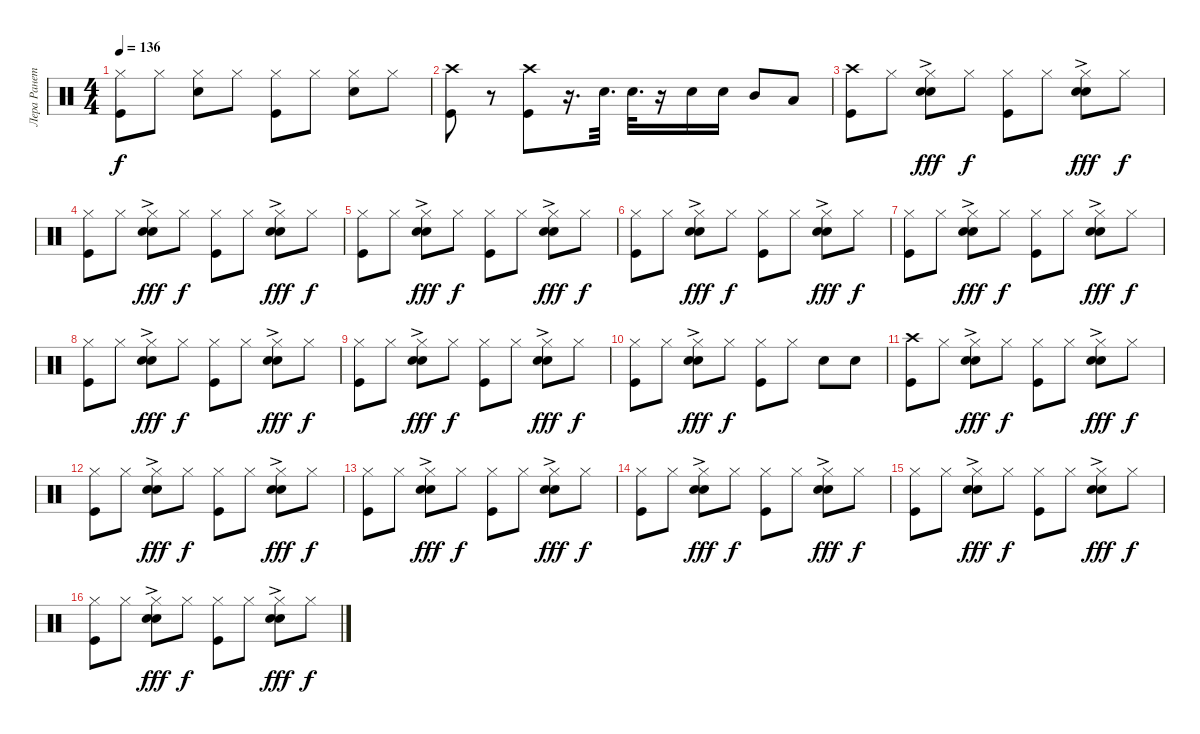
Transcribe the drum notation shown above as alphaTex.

\track ("Лера Ранетка" "Лера Ранет") {instrument percussion}
\staff {score}
\articulation defaults
\ts (4 4)
\tempo 136
\clef neutral
\ks c
("Hi-Hat (closed)" "Kick (hit)").8{dy f} "Hi-Hat (closed)".8 ("Hi-Hat (closed)" "Electric Snare (hit)").8 "Hi-Hat (closed)".8 ("Hi-Hat (closed)" "Kick (hit)").8 "Hi-Hat (closed)".8 ("Hi-Hat (closed)" "Electric Snare (hit)").8 "Hi-Hat (closed)".8 |
("Crash high (hit)" "Kick (hit)").8 r.8 ("Crash high (hit)" "Kick (hit)").8 r.16{d} "Electric Snare (hit)".32{d} "Electric Snare (hit)".32{d} r.16 "Electric Snare (hit)".16 "Electric Snare (hit)".16 "Mid Tom (hit)".8 "Low Tom (hit)".8 |
("Crash high (hit)" "Kick (hit)").8 "Hi-Hat (closed)".8 ("Hi-Hat (closed)" "Electric Snare (hit)" "Hand Clap (hit)"{ac}).8{dy fff} "Hi-Hat (closed)".8{dy f} ("Hi-Hat (closed)" "Kick (hit)").8 "Hi-Hat (closed)".8 ("Hi-Hat (closed)" "Electric Snare (hit)" "Hand Clap (hit)"{ac}).8{dy fff} "Hi-Hat (closed)".8{dy f} |
("Hi-Hat (closed)" "Kick (hit)").8 "Hi-Hat (closed)".8 ("Hi-Hat (closed)" "Electric Snare (hit)" "Hand Clap (hit)"{ac}).8{dy fff} "Hi-Hat (closed)".8{dy f} ("Hi-Hat (closed)" "Kick (hit)").8 "Hi-Hat (closed)".8 ("Hi-Hat (closed)" "Electric Snare (hit)" "Hand Clap (hit)"{ac}).8{dy fff} "Hi-Hat (closed)".8{dy f} |
("Hi-Hat (closed)" "Kick (hit)").8 "Hi-Hat (closed)".8 ("Hi-Hat (closed)" "Electric Snare (hit)" "Hand Clap (hit)"{ac}).8{dy fff} "Hi-Hat (closed)".8{dy f} ("Hi-Hat (closed)" "Kick (hit)").8 "Hi-Hat (closed)".8 ("Hi-Hat (closed)" "Electric Snare (hit)" "Hand Clap (hit)"{ac}).8{dy fff} "Hi-Hat (closed)".8{dy f} |
("Hi-Hat (closed)" "Kick (hit)").8 "Hi-Hat (closed)".8 ("Hi-Hat (closed)" "Electric Snare (hit)" "Hand Clap (hit)"{ac}).8{dy fff} "Hi-Hat (closed)".8{dy f} ("Hi-Hat (closed)" "Kick (hit)").8 "Hi-Hat (closed)".8 ("Hi-Hat (closed)" "Electric Snare (hit)" "Hand Clap (hit)"{ac}).8{dy fff} "Hi-Hat (closed)".8{dy f} |
("Hi-Hat (closed)" "Kick (hit)").8 "Hi-Hat (closed)".8 ("Hi-Hat (closed)" "Electric Snare (hit)" "Hand Clap (hit)"{ac}).8{dy fff} "Hi-Hat (closed)".8{dy f} ("Hi-Hat (closed)" "Kick (hit)").8 "Hi-Hat (closed)".8 ("Hi-Hat (closed)" "Electric Snare (hit)" "Hand Clap (hit)"{ac}).8{dy fff} "Hi-Hat (closed)".8{dy f} |
("Hi-Hat (closed)" "Kick (hit)").8 "Hi-Hat (closed)".8 ("Hi-Hat (closed)" "Electric Snare (hit)" "Hand Clap (hit)"{ac}).8{dy fff} "Hi-Hat (closed)".8{dy f} ("Hi-Hat (closed)" "Kick (hit)").8 "Hi-Hat (closed)".8 ("Hi-Hat (closed)" "Electric Snare (hit)" "Hand Clap (hit)"{ac}).8{dy fff} "Hi-Hat (closed)".8{dy f} |
("Hi-Hat (closed)" "Kick (hit)").8 "Hi-Hat (closed)".8 ("Hi-Hat (closed)" "Electric Snare (hit)" "Hand Clap (hit)"{ac}).8{dy fff} "Hi-Hat (closed)".8{dy f} ("Hi-Hat (closed)" "Kick (hit)").8 "Hi-Hat (closed)".8 ("Hi-Hat (closed)" "Electric Snare (hit)" "Hand Clap (hit)"{ac}).8{dy fff} "Hi-Hat (closed)".8{dy f} |
("Hi-Hat (closed)" "Kick (hit)").8 "Hi-Hat (closed)".8 ("Hi-Hat (closed)" "Electric Snare (hit)" "Hand Clap (hit)"{ac}).8{dy fff} "Hi-Hat (closed)".8{dy f} ("Hi-Hat (closed)" "Kick (hit)").8 "Hi-Hat (closed)".8 "Electric Snare (hit)".8 "Electric Snare (hit)".8 |
("Crash high (hit)" "Kick (hit)").8 "Hi-Hat (closed)".8 ("Hi-Hat (closed)" "Electric Snare (hit)" "Hand Clap (hit)"{ac}).8{dy fff} "Hi-Hat (closed)".8{dy f} ("Hi-Hat (closed)" "Kick (hit)").8 "Hi-Hat (closed)".8 ("Hi-Hat (closed)" "Electric Snare (hit)" "Hand Clap (hit)"{ac}).8{dy fff} "Hi-Hat (closed)".8{dy f} |
("Hi-Hat (closed)" "Kick (hit)").8 "Hi-Hat (closed)".8 ("Hi-Hat (closed)" "Electric Snare (hit)" "Hand Clap (hit)"{ac}).8{dy fff} "Hi-Hat (closed)".8{dy f} ("Hi-Hat (closed)" "Kick (hit)").8 "Hi-Hat (closed)".8 ("Hi-Hat (closed)" "Electric Snare (hit)" "Hand Clap (hit)"{ac}).8{dy fff} "Hi-Hat (closed)".8{dy f} |
("Hi-Hat (closed)" "Kick (hit)").8 "Hi-Hat (closed)".8 ("Hi-Hat (closed)" "Electric Snare (hit)" "Hand Clap (hit)"{ac}).8{dy fff} "Hi-Hat (closed)".8{dy f} ("Hi-Hat (closed)" "Kick (hit)").8 "Hi-Hat (closed)".8 ("Hi-Hat (closed)" "Electric Snare (hit)" "Hand Clap (hit)"{ac}).8{dy fff} "Hi-Hat (closed)".8{dy f} |
("Hi-Hat (closed)" "Kick (hit)").8 "Hi-Hat (closed)".8 ("Hi-Hat (closed)" "Electric Snare (hit)" "Hand Clap (hit)"{ac}).8{dy fff} "Hi-Hat (closed)".8{dy f} ("Hi-Hat (closed)" "Kick (hit)").8 "Hi-Hat (closed)".8 ("Hi-Hat (closed)" "Electric Snare (hit)" "Hand Clap (hit)"{ac}).8{dy fff} "Hi-Hat (closed)".8{dy f} |
("Hi-Hat (closed)" "Kick (hit)").8 "Hi-Hat (closed)".8 ("Hi-Hat (closed)" "Electric Snare (hit)" "Hand Clap (hit)"{ac}).8{dy fff} "Hi-Hat (closed)".8{dy f} ("Hi-Hat (closed)" "Kick (hit)").8 "Hi-Hat (closed)".8 ("Hi-Hat (closed)" "Electric Snare (hit)" "Hand Clap (hit)"{ac}).8{dy fff} "Hi-Hat (closed)".8{dy f} |
("Hi-Hat (closed)" "Kick (hit)").8 "Hi-Hat (closed)".8 ("Hi-Hat (closed)" "Electric Snare (hit)" "Hand Clap (hit)"{ac}).8{dy fff} "Hi-Hat (closed)".8{dy f} ("Hi-Hat (closed)" "Kick (hit)").8 "Hi-Hat (closed)".8 ("Hi-Hat (closed)" "Electric Snare (hit)" "Hand Clap (hit)"{ac}).8{dy fff} "Hi-Hat (closed)".8{dy f}
